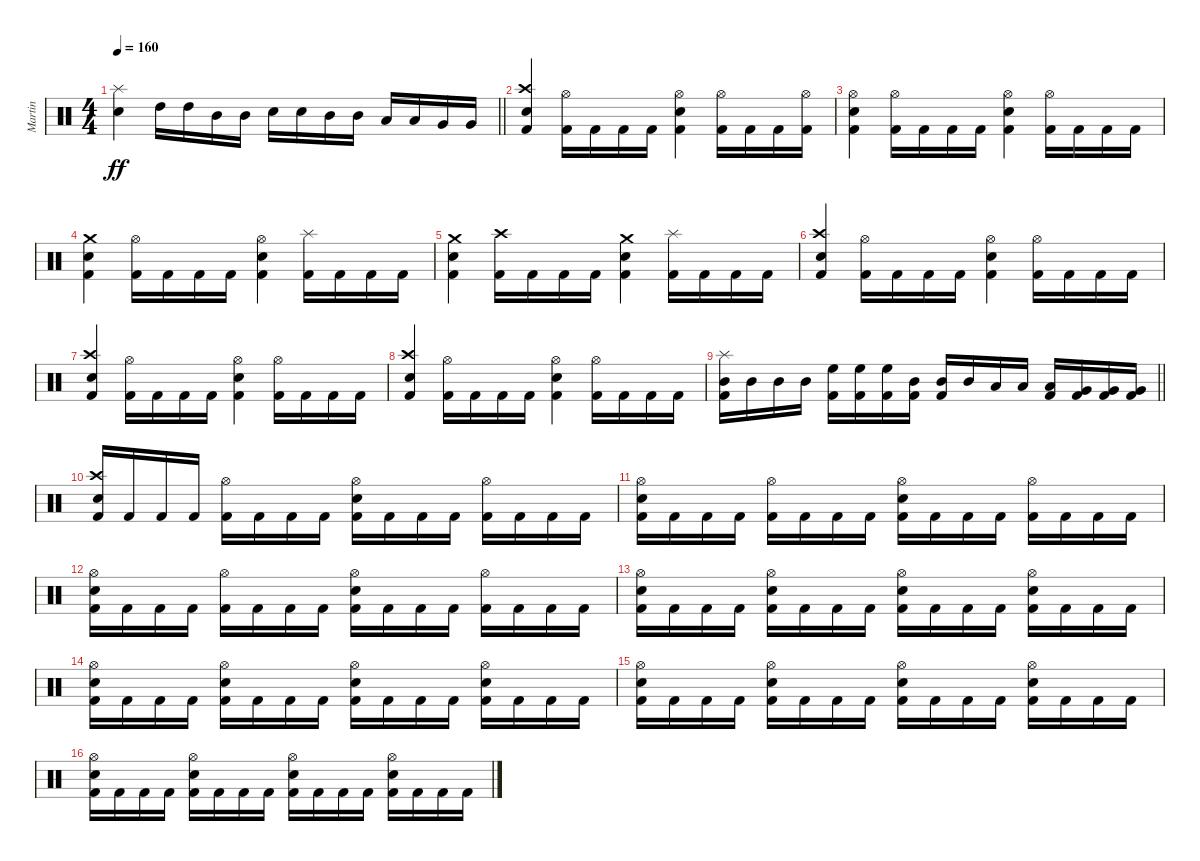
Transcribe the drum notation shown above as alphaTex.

\track ("Martin" "Martin") {instrument percussion}
\staff {score}
\articulation defaults
\ts (4 4)
\tempo 160
\clef neutral
\barLineRight lightlight
\ks c
("Splash (hit)" "Electric Snare (hit)").4{dy ff} "High Tom (hit)".16 "High Tom (hit)".16 "Mid Tom (hit)".16 "Mid Tom (hit)".16 "Electric Snare (hit)".16 "Electric Snare (hit)".16 "Mid Tom (hit)".16 "Mid Tom (hit)".16 "Low Tom (hit)".16 "Low Tom (hit)".16 "Very Low Tom (hit)".16 "Very Low Tom (hit)".16 |
("Crash high (hit)" "Electric Snare (hit)" "Kick (hit) 2").4 ("Hi-Hat (open)" "Kick (hit) 2").16 "Kick (hit) 2".16 "Kick (hit) 2".16 "Kick (hit) 2".16 ("Hi-Hat (open)" "Electric Snare (hit)" "Kick (hit) 2").4 ("Hi-Hat (open)" "Kick (hit) 2").16 "Kick (hit) 2".16 "Kick (hit) 2".16 ("Hi-Hat (open)" "Kick (hit) 2").16 |
("Hi-Hat (open)" "Electric Snare (hit)" "Kick (hit) 2").4 ("Hi-Hat (open)" "Kick (hit) 2").16 "Kick (hit) 2".16 "Kick (hit) 2".16 "Kick (hit) 2".16 ("Hi-Hat (open)" "Electric Snare (hit)" "Kick (hit) 2").4 ("Hi-Hat (open)" "Kick (hit) 2").16 "Kick (hit) 2".16 "Kick (hit) 2".16 "Kick (hit) 2".16 |
("Crash medium (hit)" "Electric Snare (hit)" "Kick (hit) 2").4 ("Hi-Hat (open)" "Kick (hit) 2").16 "Kick (hit) 2".16 "Kick (hit) 2".16 "Kick (hit) 2".16 ("Hi-Hat (open)" "Electric Snare (hit)" "Kick (hit) 2").4 ("Splash (hit)" "Kick (hit) 2").16 "Kick (hit) 2".16 "Kick (hit) 2".16 "Kick (hit) 2".16 |
("Crash medium (hit)" "Electric Snare (hit)" "Kick (hit) 2").4 ("Crash high (hit)" "Kick (hit) 2").16 "Kick (hit) 2".16 "Kick (hit) 2".16 "Kick (hit) 2".16 ("Crash medium (hit)" "Electric Snare (hit)" "Kick (hit) 2").4 ("Splash (hit)" "Kick (hit) 2").16 "Kick (hit) 2".16 "Kick (hit) 2".16 "Kick (hit) 2".16 |
("Crash high (hit)" "Electric Snare (hit)" "Kick (hit) 2").4 ("Hi-Hat (open)" "Kick (hit) 2").16 "Kick (hit) 2".16 "Kick (hit) 2".16 "Kick (hit) 2".16 ("Hi-Hat (open)" "Electric Snare (hit)" "Kick (hit) 2").4 ("Hi-Hat (open)" "Kick (hit) 2").16 "Kick (hit) 2".16 "Kick (hit) 2".16 "Kick (hit) 2".16 |
("Crash high (hit)" "Electric Snare (hit)" "Kick (hit) 2").4 ("Hi-Hat (open)" "Kick (hit) 2").16 "Kick (hit) 2".16 "Kick (hit) 2".16 "Kick (hit) 2".16 ("Hi-Hat (open)" "Electric Snare (hit)" "Kick (hit) 2").4 ("Hi-Hat (open)" "Kick (hit) 2").16 "Kick (hit) 2".16 "Kick (hit) 2".16 "Kick (hit) 2".16 |
("Crash high (hit)" "Electric Snare (hit)" "Kick (hit) 2").4 ("Hi-Hat (open)" "Kick (hit) 2").16 "Kick (hit) 2".16 "Kick (hit) 2".16 "Kick (hit) 2".16 ("Hi-Hat (open)" "Electric Snare (hit)" "Kick (hit) 2").4 ("Hi-Hat (open)" "Kick (hit) 2").16 "Kick (hit) 2".16 "Kick (hit) 2".16 "Kick (hit) 2".16 |
\barLineRight lightlight
("Splash (hit)" "Mid Tom (hit)" "Kick (hit) 2").16 "Mid Tom (hit)".16 "Mid Tom (hit)".16 "Mid Tom (hit)".16 ("High Floor Tom (hit)" "Kick (hit) 2").16 ("High Floor Tom (hit)" "Kick (hit) 2").16 ("High Floor Tom (hit)" "Kick (hit) 2").16 ("Mid Tom (hit)" "Kick (hit) 2").16 ("Mid Tom (hit)" "Kick (hit) 2").16 "Mid Tom (hit)".16 "Low Tom (hit)".16 "Low Tom (hit)".16 ("Low Tom (hit)" "Kick (hit) 2").16 ("Very Low Tom (hit)" "Kick (hit) 2").16 ("Very Low Tom (hit)" "Kick (hit) 2").16 ("Very Low Tom (hit)" "Kick (hit) 2").16 |
("Crash high (hit)" "Electric Snare (hit)" "Kick (hit) 2").16 "Kick (hit) 2".16 "Kick (hit) 2".16 "Kick (hit) 2".16 ("Hi-Hat (open)" "Kick (hit) 2").16 "Kick (hit) 2".16 "Kick (hit) 2".16 "Kick (hit) 2".16 ("Hi-Hat (open)" "Electric Snare (hit)" "Kick (hit) 2").16 "Kick (hit) 2".16 "Kick (hit) 2".16 "Kick (hit) 2".16 ("Hi-Hat (open)" "Kick (hit) 2").16 "Kick (hit) 2".16 "Kick (hit) 2".16 "Kick (hit) 2".16 |
("Hi-Hat (open)" "Electric Snare (hit)" "Kick (hit) 2").16 "Kick (hit) 2".16 "Kick (hit) 2".16 "Kick (hit) 2".16 ("Hi-Hat (open)" "Kick (hit) 2").16 "Kick (hit) 2".16 "Kick (hit) 2".16 "Kick (hit) 2".16 ("Hi-Hat (open)" "Electric Snare (hit)" "Kick (hit) 2").16 "Kick (hit) 2".16 "Kick (hit) 2".16 "Kick (hit) 2".16 ("Hi-Hat (open)" "Kick (hit) 2").16 "Kick (hit) 2".16 "Kick (hit) 2".16 "Kick (hit) 2".16 |
("Hi-Hat (open)" "Electric Snare (hit)" "Kick (hit) 2").16 "Kick (hit) 2".16 "Kick (hit) 2".16 "Kick (hit) 2".16 ("Hi-Hat (open)" "Kick (hit) 2").16 "Kick (hit) 2".16 "Kick (hit) 2".16 "Kick (hit) 2".16 ("Hi-Hat (open)" "Electric Snare (hit)" "Kick (hit) 2").16 "Kick (hit) 2".16 "Kick (hit) 2".16 "Kick (hit) 2".16 ("Hi-Hat (open)" "Kick (hit) 2").16 "Kick (hit) 2".16 "Kick (hit) 2".16 "Kick (hit) 2".16 |
("Hi-Hat (open)" "Electric Snare (hit)" "Kick (hit) 2").16 "Kick (hit) 2".16 "Kick (hit) 2".16 "Kick (hit) 2".16 ("Hi-Hat (open)" "Electric Snare (hit)" "Kick (hit) 2").16 "Kick (hit) 2".16 "Kick (hit) 2".16 "Kick (hit) 2".16 ("Hi-Hat (open)" "Electric Snare (hit)" "Kick (hit) 2").16 "Kick (hit) 2".16 "Kick (hit) 2".16 "Kick (hit) 2".16 ("Hi-Hat (open)" "Electric Snare (hit)" "Kick (hit) 2").16 "Kick (hit) 2".16 "Kick (hit) 2".16 "Kick (hit) 2".16 |
("Hi-Hat (open)" "Electric Snare (hit)" "Kick (hit) 2").16 "Kick (hit) 2".16 "Kick (hit) 2".16 "Kick (hit) 2".16 ("Hi-Hat (open)" "Electric Snare (hit)" "Kick (hit) 2").16 "Kick (hit) 2".16 "Kick (hit) 2".16 "Kick (hit) 2".16 ("Hi-Hat (open)" "Electric Snare (hit)" "Kick (hit) 2").16 "Kick (hit) 2".16 "Kick (hit) 2".16 "Kick (hit) 2".16 ("Hi-Hat (open)" "Electric Snare (hit)" "Kick (hit) 2").16 "Kick (hit) 2".16 "Kick (hit) 2".16 "Kick (hit) 2".16 |
("Hi-Hat (open)" "Electric Snare (hit)" "Kick (hit) 2").16 "Kick (hit) 2".16 "Kick (hit) 2".16 "Kick (hit) 2".16 ("Hi-Hat (open)" "Electric Snare (hit)" "Kick (hit) 2").16 "Kick (hit) 2".16 "Kick (hit) 2".16 "Kick (hit) 2".16 ("Hi-Hat (open)" "Electric Snare (hit)" "Kick (hit) 2").16 "Kick (hit) 2".16 "Kick (hit) 2".16 "Kick (hit) 2".16 ("Hi-Hat (open)" "Electric Snare (hit)" "Kick (hit) 2").16 "Kick (hit) 2".16 "Kick (hit) 2".16 "Kick (hit) 2".16 |
("Hi-Hat (open)" "Electric Snare (hit)" "Kick (hit) 2").16 "Kick (hit) 2".16 "Kick (hit) 2".16 "Kick (hit) 2".16 ("Hi-Hat (open)" "Electric Snare (hit)" "Kick (hit) 2").16 "Kick (hit) 2".16 "Kick (hit) 2".16 "Kick (hit) 2".16 ("Hi-Hat (open)" "Electric Snare (hit)" "Kick (hit) 2").16 "Kick (hit) 2".16 "Kick (hit) 2".16 "Kick (hit) 2".16 ("Hi-Hat (open)" "Electric Snare (hit)" "Kick (hit) 2").16 "Kick (hit) 2".16 "Kick (hit) 2".16 "Kick (hit) 2".16
